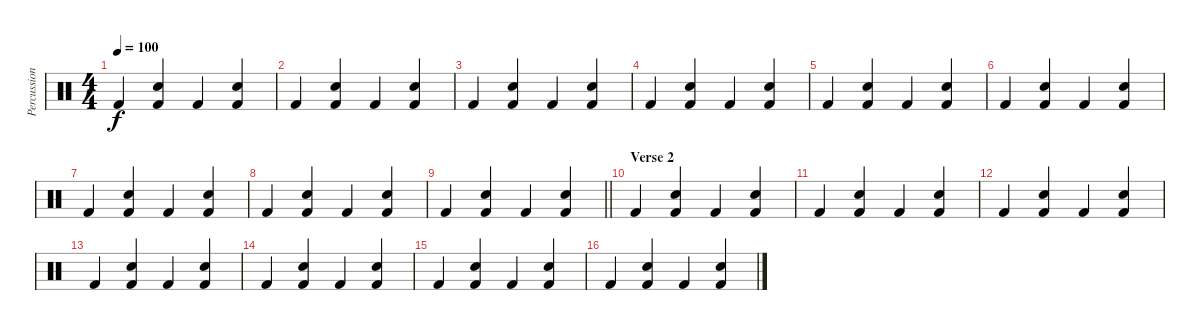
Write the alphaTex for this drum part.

\track ("Percussion" "Percussion") {instrument percussion}
\staff {score}
\articulation defaults
\ts (4 4)
\tempo 100
\clef neutral
\ks c "Kick (hit) 2".4{dy f}
("Snare (hit) 2" "Kick (hit) 2").4 "Kick (hit) 2".4 ("Snare (hit) 2" "Kick (hit) 2").4 |
"Kick (hit) 2".4 ("Snare (hit) 2" "Kick (hit) 2").4 "Kick (hit) 2".4 ("Snare (hit) 2" "Kick (hit) 2").4 |
"Kick (hit) 2".4 ("Snare (hit) 2" "Kick (hit) 2").4 "Kick (hit) 2".4 ("Snare (hit) 2" "Kick (hit) 2").4 |
"Kick (hit) 2".4 ("Snare (hit) 2" "Kick (hit) 2").4 "Kick (hit) 2".4 ("Snare (hit) 2" "Kick (hit) 2").4 |
"Kick (hit) 2".4 ("Snare (hit) 2" "Kick (hit) 2").4 "Kick (hit) 2".4 ("Snare (hit) 2" "Kick (hit) 2").4 |
"Kick (hit) 2".4 ("Snare (hit) 2" "Kick (hit) 2").4 "Kick (hit) 2".4 ("Snare (hit) 2" "Kick (hit) 2").4 |
"Kick (hit) 2".4 ("Snare (hit) 2" "Kick (hit) 2").4 "Kick (hit) 2".4 ("Snare (hit) 2" "Kick (hit) 2").4 |
"Kick (hit) 2".4 ("Snare (hit) 2" "Kick (hit) 2").4 "Kick (hit) 2".4 ("Snare (hit) 2" "Kick (hit) 2").4 |
\barLineRight lightlight "Kick (hit) 2".4
("Snare (hit) 2" "Kick (hit) 2").4 "Kick (hit) 2".4 ("Snare (hit) 2" "Kick (hit) 2").4 |
\section ("" "Verse 2")
"Kick (hit) 2".4 ("Snare (hit) 2" "Kick (hit) 2").4 "Kick (hit) 2".4 ("Snare (hit) 2" "Kick (hit) 2").4 |
"Kick (hit) 2".4 ("Snare (hit) 2" "Kick (hit) 2").4 "Kick (hit) 2".4 ("Snare (hit) 2" "Kick (hit) 2").4 |
"Kick (hit) 2".4 ("Snare (hit) 2" "Kick (hit) 2").4 "Kick (hit) 2".4 ("Snare (hit) 2" "Kick (hit) 2").4 |
"Kick (hit) 2".4 ("Snare (hit) 2" "Kick (hit) 2").4 "Kick (hit) 2".4 ("Snare (hit) 2" "Kick (hit) 2").4 |
"Kick (hit) 2".4 ("Snare (hit) 2" "Kick (hit) 2").4 "Kick (hit) 2".4 ("Snare (hit) 2" "Kick (hit) 2").4 |
"Kick (hit) 2".4 ("Snare (hit) 2" "Kick (hit) 2").4 "Kick (hit) 2".4 ("Snare (hit) 2" "Kick (hit) 2").4 |
"Kick (hit) 2".4 ("Snare (hit) 2" "Kick (hit) 2").4 "Kick (hit) 2".4 ("Snare (hit) 2" "Kick (hit) 2").4
